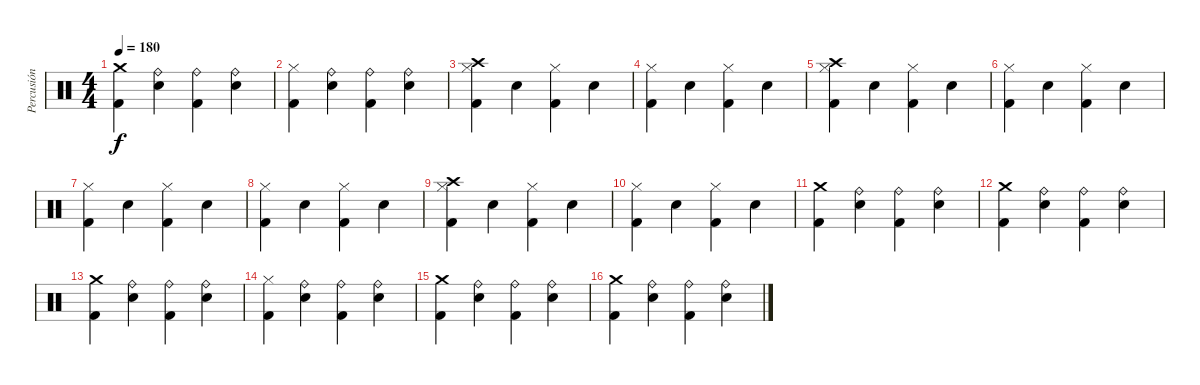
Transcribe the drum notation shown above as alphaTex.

\track ("Percusión" "Percusión") {instrument percussion}
\staff {score}
\articulation defaults
\ts (4 4)
\tempo 180
\clef neutral
\ks c
("Crash medium (hit)" "Kick (hit) 2").4{dy f} ("Ride (bell)" "Electric Snare (hit)").4 ("Ride (bell)" "Kick (hit) 2").4 ("Ride (bell)" "Electric Snare (hit)").4 |
("Hi-Hat (closed)" "Kick (hit) 2").4 ("Ride (bell)" "Electric Snare (hit)").4 ("Ride (bell)" "Kick (hit) 2").4 ("Ride (bell)" "Electric Snare (hit)").4 |
("Crash high (hit)" "Hi-Hat (closed)" "Kick (hit) 2").4 "Electric Snare (hit)".4 ("Hi-Hat (closed)" "Kick (hit) 2").4 "Electric Snare (hit)".4 |
("Hi-Hat (closed)" "Kick (hit) 2").4 "Electric Snare (hit)".4 ("Hi-Hat (closed)" "Kick (hit) 2").4 "Electric Snare (hit)".4 |
("Crash high (hit)" "Hi-Hat (closed)" "Kick (hit) 2").4 "Electric Snare (hit)".4 ("Hi-Hat (closed)" "Kick (hit) 2").4 "Electric Snare (hit)".4 |
("Hi-Hat (closed)" "Kick (hit) 2").4 "Electric Snare (hit)".4 ("Hi-Hat (closed)" "Kick (hit) 2").4 "Electric Snare (hit)".4 |
("Hi-Hat (closed)" "Kick (hit) 2").4 "Electric Snare (hit)".4 ("Hi-Hat (closed)" "Kick (hit) 2").4 "Electric Snare (hit)".4 |
("Hi-Hat (closed)" "Kick (hit) 2").4 "Electric Snare (hit)".4 ("Hi-Hat (closed)" "Kick (hit) 2").4 "Electric Snare (hit)".4 |
("Crash high (hit)" "Hi-Hat (closed)" "Kick (hit) 2").4 "Electric Snare (hit)".4 ("Hi-Hat (closed)" "Kick (hit) 2").4 "Electric Snare (hit)".4 |
("Hi-Hat (closed)" "Kick (hit) 2").4 "Electric Snare (hit)".4 ("Hi-Hat (closed)" "Kick (hit) 2").4 "Electric Snare (hit)".4 |
("Crash medium (hit)" "Kick (hit) 2").4 ("Ride (bell)" "Electric Snare (hit)").4 ("Ride (bell)" "Kick (hit) 2").4 ("Ride (bell)" "Electric Snare (hit)").4 |
("Crash medium (hit)" "Kick (hit) 2").4 ("Ride (bell)" "Electric Snare (hit)").4 ("Ride (bell)" "Kick (hit) 2").4 ("Ride (bell)" "Electric Snare (hit)").4 |
("Crash medium (hit)" "Kick (hit) 2").4 ("Ride (bell)" "Electric Snare (hit)").4 ("Ride (bell)" "Kick (hit) 2").4 ("Ride (bell)" "Electric Snare (hit)").4 |
("Hi-Hat (closed)" "Kick (hit) 2").4 ("Ride (bell)" "Electric Snare (hit)").4 ("Ride (bell)" "Kick (hit) 2").4 ("Ride (bell)" "Electric Snare (hit)").4 |
("Crash medium (hit)" "Kick (hit) 2").4 ("Ride (bell)" "Electric Snare (hit)").4 ("Ride (bell)" "Kick (hit) 2").4 ("Ride (bell)" "Electric Snare (hit)").4 |
("Crash medium (hit)" "Kick (hit) 2").4 ("Ride (bell)" "Electric Snare (hit)").4 ("Ride (bell)" "Kick (hit) 2").4 ("Ride (bell)" "Electric Snare (hit)").4
